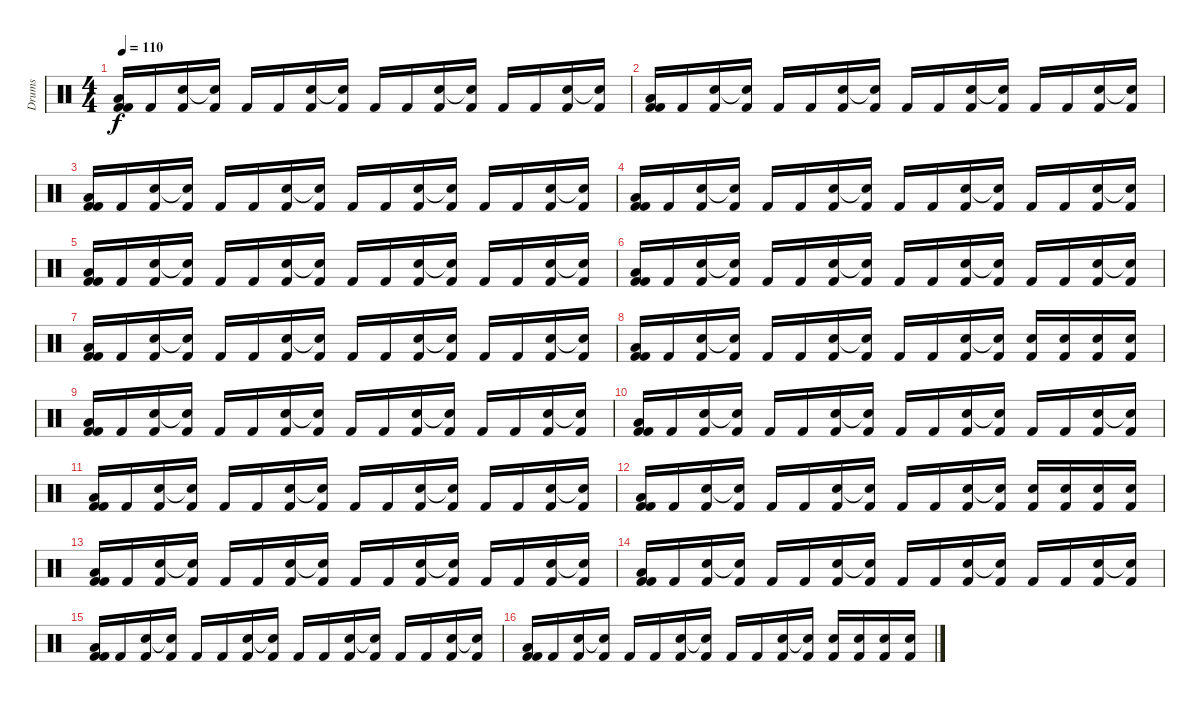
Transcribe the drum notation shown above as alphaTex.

\track ("Drums" "Drums") {instrument percussion}
\staff {score}
\articulation defaults
\ts (4 4)
\tempo 110
\clef neutral
\ks c
("Kick (hit) 2" "Low Floor Tom (hit)" "Kick (hit) 2").16{dy f} "Kick (hit) 2".16 ("Kick (hit) 2" "Electric Snare (hit)").16 ("Kick (hit) 2" "Snare (hit)"{t}).16 "Kick (hit) 2".16 "Kick (hit) 2".16 ("Kick (hit) 2" "Electric Snare (hit)").16 ("Kick (hit) 2" "Snare (hit)"{t}).16 "Kick (hit) 2".16 "Kick (hit) 2".16 ("Kick (hit) 2" "Electric Snare (hit)").16 ("Kick (hit) 2" "Snare (hit)"{t}).16 "Kick (hit) 2".16 "Kick (hit) 2".16 ("Kick (hit) 2" "Electric Snare (hit)").16 ("Kick (hit) 2" "Snare (hit)"{t}).16 |
("Kick (hit) 2" "Low Floor Tom (hit)" "Kick (hit) 2").16 "Kick (hit) 2".16 ("Kick (hit) 2" "Electric Snare (hit)").16 ("Kick (hit) 2" "Snare (hit)"{t}).16 "Kick (hit) 2".16 "Kick (hit) 2".16 ("Kick (hit) 2" "Electric Snare (hit)").16 ("Kick (hit) 2" "Snare (hit)"{t}).16 "Kick (hit) 2".16 "Kick (hit) 2".16 ("Kick (hit) 2" "Electric Snare (hit)").16 ("Kick (hit) 2" "Snare (hit)"{t}).16 "Kick (hit) 2".16 "Kick (hit) 2".16 ("Kick (hit) 2" "Electric Snare (hit)").16 ("Kick (hit) 2" "Snare (hit)"{t}).16 |
("Kick (hit) 2" "Low Floor Tom (hit)" "Kick (hit) 2").16 "Kick (hit) 2".16 ("Kick (hit) 2" "Electric Snare (hit)").16 ("Kick (hit) 2" "Snare (hit)"{t}).16 "Kick (hit) 2".16 "Kick (hit) 2".16 ("Kick (hit) 2" "Electric Snare (hit)").16 ("Kick (hit) 2" "Snare (hit)"{t}).16 "Kick (hit) 2".16 "Kick (hit) 2".16 ("Kick (hit) 2" "Electric Snare (hit)").16 ("Kick (hit) 2" "Snare (hit)"{t}).16 "Kick (hit) 2".16 "Kick (hit) 2".16 ("Kick (hit) 2" "Electric Snare (hit)").16 ("Kick (hit) 2" "Snare (hit)"{t}).16 |
("Kick (hit) 2" "Low Floor Tom (hit)" "Kick (hit) 2").16 "Kick (hit) 2".16 ("Kick (hit) 2" "Electric Snare (hit)").16 ("Kick (hit) 2" "Snare (hit)"{t}).16 "Kick (hit) 2".16 "Kick (hit) 2".16 ("Kick (hit) 2" "Electric Snare (hit)").16 ("Kick (hit) 2" "Snare (hit)"{t}).16 "Kick (hit) 2".16 "Kick (hit) 2".16 ("Kick (hit) 2" "Electric Snare (hit)").16 ("Kick (hit) 2" "Snare (hit)"{t}).16 "Kick (hit) 2".16 "Kick (hit) 2".16 ("Kick (hit) 2" "Electric Snare (hit)").16 ("Kick (hit) 2" "Snare (hit)"{t}).16 |
("Kick (hit) 2" "Low Floor Tom (hit)" "Kick (hit) 2").16 "Kick (hit) 2".16 ("Kick (hit) 2" "Electric Snare (hit)").16 ("Kick (hit) 2" "Snare (hit)"{t}).16 "Kick (hit) 2".16 "Kick (hit) 2".16 ("Kick (hit) 2" "Electric Snare (hit)").16 ("Kick (hit) 2" "Snare (hit)"{t}).16 "Kick (hit) 2".16 "Kick (hit) 2".16 ("Kick (hit) 2" "Electric Snare (hit)").16 ("Kick (hit) 2" "Snare (hit)"{t}).16 "Kick (hit) 2".16 "Kick (hit) 2".16 ("Kick (hit) 2" "Electric Snare (hit)").16 ("Kick (hit) 2" "Snare (hit)"{t}).16 |
("Kick (hit) 2" "Low Floor Tom (hit)" "Kick (hit) 2").16 "Kick (hit) 2".16 ("Kick (hit) 2" "Electric Snare (hit)").16 ("Kick (hit) 2" "Snare (hit)"{t}).16 "Kick (hit) 2".16 "Kick (hit) 2".16 ("Kick (hit) 2" "Electric Snare (hit)").16 ("Kick (hit) 2" "Snare (hit)"{t}).16 "Kick (hit) 2".16 "Kick (hit) 2".16 ("Kick (hit) 2" "Electric Snare (hit)").16 ("Kick (hit) 2" "Snare (hit)"{t}).16 "Kick (hit) 2".16 "Kick (hit) 2".16 ("Kick (hit) 2" "Electric Snare (hit)").16 ("Kick (hit) 2" "Electric Snare (hit)"{t}).16 |
("Kick (hit) 2" "Low Floor Tom (hit)" "Kick (hit) 2").16 "Kick (hit) 2".16 ("Kick (hit) 2" "Electric Snare (hit)").16 ("Kick (hit) 2" "Snare (hit)"{t}).16 "Kick (hit) 2".16 "Kick (hit) 2".16 ("Kick (hit) 2" "Electric Snare (hit)").16 ("Kick (hit) 2" "Snare (hit)"{t}).16 "Kick (hit) 2".16 "Kick (hit) 2".16 ("Kick (hit) 2" "Electric Snare (hit)").16 ("Kick (hit) 2" "Snare (hit)"{t}).16 "Kick (hit) 2".16 "Kick (hit) 2".16 ("Kick (hit) 2" "Electric Snare (hit)").16 ("Kick (hit) 2" "Snare (hit)"{t}).16 |
("Kick (hit) 2" "Low Floor Tom (hit)" "Kick (hit) 2").16 "Kick (hit) 2".16 ("Kick (hit) 2" "Electric Snare (hit)").16 ("Kick (hit) 2" "Snare (hit)"{t}).16 "Kick (hit) 2".16 "Kick (hit) 2".16 ("Kick (hit) 2" "Electric Snare (hit)").16 ("Kick (hit) 2" "Snare (hit)"{t}).16 "Kick (hit) 2".16 "Kick (hit) 2".16 ("Kick (hit) 2" "Electric Snare (hit)").16 ("Kick (hit) 2" "Snare (hit)"{t}).16 ("Kick (hit) 2" "Electric Snare (hit)").16 ("Kick (hit) 2" "Electric Snare (hit)").16 ("Kick (hit) 2" "Electric Snare (hit)").16 ("Kick (hit) 2" "Electric Snare (hit)").16 |
("Kick (hit) 2" "Low Floor Tom (hit)" "Kick (hit) 2").16 "Kick (hit) 2".16 ("Kick (hit) 2" "Electric Snare (hit)").16 ("Kick (hit) 2" "Snare (hit)"{t}).16 "Kick (hit) 2".16 "Kick (hit) 2".16 ("Kick (hit) 2" "Electric Snare (hit)").16 ("Kick (hit) 2" "Snare (hit)"{t}).16 "Kick (hit) 2".16 "Kick (hit) 2".16 ("Kick (hit) 2" "Electric Snare (hit)").16 ("Kick (hit) 2" "Snare (hit)"{t}).16 "Kick (hit) 2".16 "Kick (hit) 2".16 ("Kick (hit) 2" "Electric Snare (hit)").16 ("Kick (hit) 2" "Snare (hit)"{t}).16 |
("Kick (hit) 2" "Low Floor Tom (hit)" "Kick (hit) 2").16 "Kick (hit) 2".16 ("Kick (hit) 2" "Electric Snare (hit)").16 ("Kick (hit) 2" "Snare (hit)"{t}).16 "Kick (hit) 2".16 "Kick (hit) 2".16 ("Kick (hit) 2" "Electric Snare (hit)").16 ("Kick (hit) 2" "Snare (hit)"{t}).16 "Kick (hit) 2".16 "Kick (hit) 2".16 ("Kick (hit) 2" "Electric Snare (hit)").16 ("Kick (hit) 2" "Snare (hit)"{t}).16 "Kick (hit) 2".16 "Kick (hit) 2".16 ("Kick (hit) 2" "Electric Snare (hit)").16 ("Kick (hit) 2" "Electric Snare (hit)"{t}).16 |
("Kick (hit) 2" "Low Floor Tom (hit)" "Kick (hit) 2").16 "Kick (hit) 2".16 ("Kick (hit) 2" "Electric Snare (hit)").16 ("Kick (hit) 2" "Snare (hit)"{t}).16 "Kick (hit) 2".16 "Kick (hit) 2".16 ("Kick (hit) 2" "Electric Snare (hit)").16 ("Kick (hit) 2" "Snare (hit)"{t}).16 "Kick (hit) 2".16 "Kick (hit) 2".16 ("Kick (hit) 2" "Electric Snare (hit)").16 ("Kick (hit) 2" "Snare (hit)"{t}).16 "Kick (hit) 2".16 "Kick (hit) 2".16 ("Kick (hit) 2" "Electric Snare (hit)").16 ("Kick (hit) 2" "Snare (hit)"{t}).16 |
("Kick (hit) 2" "Low Floor Tom (hit)" "Kick (hit) 2").16 "Kick (hit) 2".16 ("Kick (hit) 2" "Electric Snare (hit)").16 ("Kick (hit) 2" "Snare (hit)"{t}).16 "Kick (hit) 2".16 "Kick (hit) 2".16 ("Kick (hit) 2" "Electric Snare (hit)").16 ("Kick (hit) 2" "Snare (hit)"{t}).16 "Kick (hit) 2".16 "Kick (hit) 2".16 ("Kick (hit) 2" "Electric Snare (hit)").16 ("Kick (hit) 2" "Snare (hit)"{t}).16 ("Kick (hit) 2" "Electric Snare (hit)").16 ("Kick (hit) 2" "Electric Snare (hit)").16 ("Kick (hit) 2" "Electric Snare (hit)").16 ("Kick (hit) 2" "Electric Snare (hit)").16 |
("Kick (hit) 2" "Low Floor Tom (hit)" "Kick (hit) 2").16 "Kick (hit) 2".16 ("Kick (hit) 2" "Electric Snare (hit)").16 ("Kick (hit) 2" "Snare (hit)"{t}).16 "Kick (hit) 2".16 "Kick (hit) 2".16 ("Kick (hit) 2" "Electric Snare (hit)").16 ("Kick (hit) 2" "Snare (hit)"{t}).16 "Kick (hit) 2".16 "Kick (hit) 2".16 ("Kick (hit) 2" "Electric Snare (hit)").16 ("Kick (hit) 2" "Snare (hit)"{t}).16 "Kick (hit) 2".16 "Kick (hit) 2".16 ("Kick (hit) 2" "Electric Snare (hit)").16 ("Kick (hit) 2" "Snare (hit)"{t}).16 |
("Kick (hit) 2" "Low Floor Tom (hit)" "Kick (hit) 2").16 "Kick (hit) 2".16 ("Kick (hit) 2" "Electric Snare (hit)").16 ("Kick (hit) 2" "Snare (hit)"{t}).16 "Kick (hit) 2".16 "Kick (hit) 2".16 ("Kick (hit) 2" "Electric Snare (hit)").16 ("Kick (hit) 2" "Snare (hit)"{t}).16 "Kick (hit) 2".16 "Kick (hit) 2".16 ("Kick (hit) 2" "Electric Snare (hit)").16 ("Kick (hit) 2" "Snare (hit)"{t}).16 "Kick (hit) 2".16 "Kick (hit) 2".16 ("Kick (hit) 2" "Electric Snare (hit)").16 ("Kick (hit) 2" "Electric Snare (hit)"{t}).16 |
("Kick (hit) 2" "Low Floor Tom (hit)" "Kick (hit) 2").16 "Kick (hit) 2".16 ("Kick (hit) 2" "Electric Snare (hit)").16 ("Kick (hit) 2" "Snare (hit)"{t}).16 "Kick (hit) 2".16 "Kick (hit) 2".16 ("Kick (hit) 2" "Electric Snare (hit)").16 ("Kick (hit) 2" "Snare (hit)"{t}).16 "Kick (hit) 2".16 "Kick (hit) 2".16 ("Kick (hit) 2" "Electric Snare (hit)").16 ("Kick (hit) 2" "Snare (hit)"{t}).16 "Kick (hit) 2".16 "Kick (hit) 2".16 ("Kick (hit) 2" "Electric Snare (hit)").16 ("Kick (hit) 2" "Snare (hit)"{t}).16 |
("Kick (hit) 2" "Low Floor Tom (hit)" "Kick (hit) 2").16 "Kick (hit) 2".16 ("Kick (hit) 2" "Electric Snare (hit)").16 ("Kick (hit) 2" "Snare (hit)"{t}).16 "Kick (hit) 2".16 "Kick (hit) 2".16 ("Kick (hit) 2" "Electric Snare (hit)").16 ("Kick (hit) 2" "Snare (hit)"{t}).16 "Kick (hit) 2".16 "Kick (hit) 2".16 ("Kick (hit) 2" "Electric Snare (hit)").16 ("Kick (hit) 2" "Snare (hit)"{t}).16 ("Kick (hit) 2" "Electric Snare (hit)").16 ("Kick (hit) 2" "Electric Snare (hit)").16 ("Kick (hit) 2" "Electric Snare (hit)").16 ("Kick (hit) 2" "Electric Snare (hit)").16
